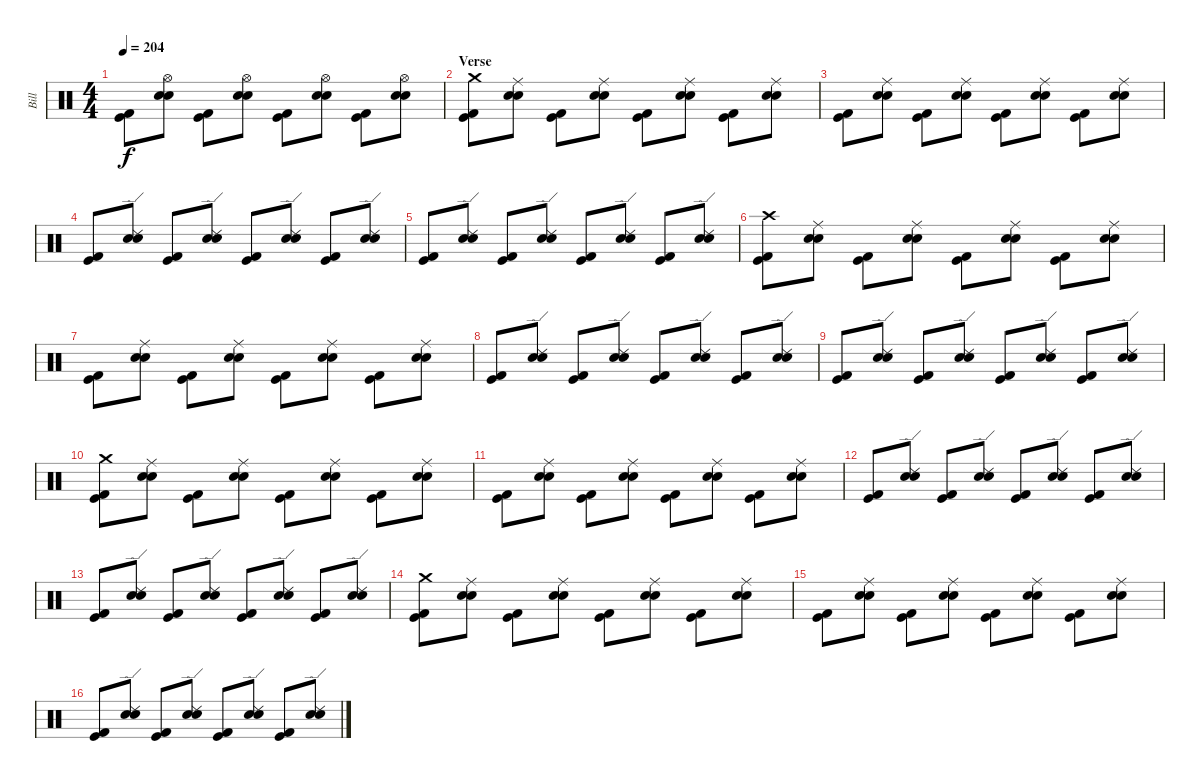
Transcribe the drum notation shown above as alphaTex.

\track ("Bill" "Bill") {instrument percussion}
\staff {score}
\articulation defaults
\ts (4 4)
\tempo 204
\clef neutral
\ks c
("Kick (hit)" "Kick (hit) 2").8{dy f} ("Hi-Hat (open)" "Snare (hit) 2" "Electric Snare (hit)").8 ("Kick (hit)" "Kick (hit) 2").8 ("Hi-Hat (open)" "Snare (hit) 2" "Electric Snare (hit)").8 ("Kick (hit)" "Kick (hit) 2").8 ("Hi-Hat (open)" "Snare (hit) 2" "Electric Snare (hit)").8 ("Kick (hit)" "Kick (hit) 2").8 ("Hi-Hat (open)" "Snare (hit) 2" "Electric Snare (hit)").8 |
\section ("" "Verse")
("Crash medium (hit)" "Kick (hit)" "Kick (hit) 2").8 ("Ride (middle)" "Snare (hit) 2" "Electric Snare (hit)").8 ("Kick (hit)" "Kick (hit) 2").8 ("Ride (middle)" "Snare (hit) 2" "Electric Snare (hit)").8 ("Kick (hit)" "Kick (hit) 2").8 ("Ride (middle)" "Snare (hit) 2" "Electric Snare (hit)").8 ("Kick (hit)" "Kick (hit) 2").8 ("Ride (middle)" "Snare (hit) 2" "Electric Snare (hit)").8 |
("Kick (hit)" "Kick (hit) 2").8 ("Ride (middle)" "Snare (hit) 2" "Electric Snare (hit)").8 ("Kick (hit)" "Kick (hit) 2").8 ("Ride (middle)" "Snare (hit) 2" "Electric Snare (hit)").8 ("Kick (hit)" "Kick (hit) 2").8 ("Ride (middle)" "Snare (hit) 2" "Electric Snare (hit)").8 ("Kick (hit)" "Kick (hit) 2").8 ("Ride (middle)" "Snare (hit) 2" "Electric Snare (hit)").8 |
("Kick (hit)" "Kick (hit) 2").8 ("Ride (edge) 2" "Snare (hit) 2" "Electric Snare (hit)").8 ("Kick (hit)" "Kick (hit) 2").8 ("Ride (edge) 2" "Snare (hit) 2" "Electric Snare (hit)").8 ("Kick (hit)" "Kick (hit) 2").8 ("Ride (edge) 2" "Snare (hit) 2" "Electric Snare (hit)").8 ("Kick (hit)" "Kick (hit) 2").8 ("Ride (edge) 2" "Snare (hit) 2" "Electric Snare (hit)").8 |
("Kick (hit)" "Kick (hit) 2").8 ("Ride (edge) 2" "Snare (hit) 2" "Electric Snare (hit)").8 ("Kick (hit)" "Kick (hit) 2").8 ("Ride (edge) 2" "Snare (hit) 2" "Electric Snare (hit)").8 ("Kick (hit)" "Kick (hit) 2").8 ("Ride (edge) 2" "Snare (hit) 2" "Electric Snare (hit)").8 ("Kick (hit)" "Kick (hit) 2").8 ("Ride (edge) 2" "Snare (hit) 2" "Electric Snare (hit)").8 |
("Crash high (hit)" "Kick (hit)" "Kick (hit) 2").8 ("Ride (middle)" "Snare (hit) 2" "Electric Snare (hit)").8 ("Kick (hit)" "Kick (hit) 2").8 ("Ride (middle)" "Snare (hit) 2" "Electric Snare (hit)").8 ("Kick (hit)" "Kick (hit) 2").8 ("Ride (middle)" "Snare (hit) 2" "Electric Snare (hit)").8 ("Kick (hit)" "Kick (hit) 2").8 ("Ride (middle)" "Snare (hit) 2" "Electric Snare (hit)").8 |
("Kick (hit)" "Kick (hit) 2").8 ("Ride (middle)" "Snare (hit) 2" "Electric Snare (hit)").8 ("Kick (hit)" "Kick (hit) 2").8 ("Ride (middle)" "Snare (hit) 2" "Electric Snare (hit)").8 ("Kick (hit)" "Kick (hit) 2").8 ("Ride (middle)" "Snare (hit) 2" "Electric Snare (hit)").8 ("Kick (hit)" "Kick (hit) 2").8 ("Ride (middle)" "Snare (hit) 2" "Electric Snare (hit)").8 |
("Kick (hit)" "Kick (hit) 2").8 ("Ride (edge) 2" "Snare (hit) 2" "Electric Snare (hit)").8 ("Kick (hit)" "Kick (hit) 2").8 ("Ride (edge) 2" "Snare (hit) 2" "Electric Snare (hit)").8 ("Kick (hit)" "Kick (hit) 2").8 ("Ride (edge) 2" "Snare (hit) 2" "Electric Snare (hit)").8 ("Kick (hit)" "Kick (hit) 2").8 ("Ride (edge) 2" "Snare (hit) 2" "Electric Snare (hit)").8 |
("Kick (hit)" "Kick (hit) 2").8 ("Ride (edge) 2" "Snare (hit) 2" "Electric Snare (hit)").8 ("Kick (hit)" "Kick (hit) 2").8 ("Ride (edge) 2" "Snare (hit) 2" "Electric Snare (hit)").8 ("Kick (hit)" "Kick (hit) 2").8 ("Ride (edge) 2" "Snare (hit) 2" "Electric Snare (hit)").8 ("Kick (hit)" "Kick (hit) 2").8 ("Ride (edge) 2" "Snare (hit) 2" "Electric Snare (hit)").8 |
("Crash medium (hit)" "Kick (hit)" "Kick (hit) 2").8 ("Ride (middle)" "Snare (hit) 2" "Electric Snare (hit)").8 ("Kick (hit)" "Kick (hit) 2").8 ("Ride (middle)" "Snare (hit) 2" "Electric Snare (hit)").8 ("Kick (hit)" "Kick (hit) 2").8 ("Ride (middle)" "Snare (hit) 2" "Electric Snare (hit)").8 ("Kick (hit)" "Kick (hit) 2").8 ("Ride (middle)" "Snare (hit) 2" "Electric Snare (hit)").8 |
("Kick (hit)" "Kick (hit) 2").8 ("Ride (middle)" "Snare (hit) 2" "Electric Snare (hit)").8 ("Kick (hit)" "Kick (hit) 2").8 ("Ride (middle)" "Snare (hit) 2" "Electric Snare (hit)").8 ("Kick (hit)" "Kick (hit) 2").8 ("Ride (middle)" "Snare (hit) 2" "Electric Snare (hit)").8 ("Kick (hit)" "Kick (hit) 2").8 ("Ride (middle)" "Snare (hit) 2" "Electric Snare (hit)").8 |
("Kick (hit)" "Kick (hit) 2").8 ("Ride (edge) 2" "Snare (hit) 2" "Electric Snare (hit)").8 ("Kick (hit)" "Kick (hit) 2").8 ("Ride (edge) 2" "Snare (hit) 2" "Electric Snare (hit)").8 ("Kick (hit)" "Kick (hit) 2").8 ("Ride (edge) 2" "Snare (hit) 2" "Electric Snare (hit)").8 ("Kick (hit)" "Kick (hit) 2").8 ("Ride (edge) 2" "Snare (hit) 2" "Electric Snare (hit)").8 |
("Kick (hit)" "Kick (hit) 2").8 ("Ride (edge) 2" "Snare (hit) 2" "Electric Snare (hit)").8 ("Kick (hit)" "Kick (hit) 2").8 ("Ride (edge) 2" "Snare (hit) 2" "Electric Snare (hit)").8 ("Kick (hit)" "Kick (hit) 2").8 ("Ride (edge) 2" "Snare (hit) 2" "Electric Snare (hit)").8 ("Kick (hit)" "Kick (hit) 2").8 ("Ride (edge) 2" "Snare (hit) 2" "Electric Snare (hit)").8 |
("Crash medium (hit)" "Kick (hit)" "Kick (hit) 2").8 ("Ride (middle)" "Snare (hit) 2" "Electric Snare (hit)").8 ("Kick (hit)" "Kick (hit) 2").8 ("Ride (middle)" "Snare (hit) 2" "Electric Snare (hit)").8 ("Kick (hit)" "Kick (hit) 2").8 ("Ride (middle)" "Snare (hit) 2" "Electric Snare (hit)").8 ("Kick (hit)" "Kick (hit) 2").8 ("Ride (middle)" "Snare (hit) 2" "Electric Snare (hit)").8 |
("Kick (hit)" "Kick (hit) 2").8 ("Ride (middle)" "Snare (hit) 2" "Electric Snare (hit)").8 ("Kick (hit)" "Kick (hit) 2").8 ("Ride (middle)" "Snare (hit) 2" "Electric Snare (hit)").8 ("Kick (hit)" "Kick (hit) 2").8 ("Ride (middle)" "Snare (hit) 2" "Electric Snare (hit)").8 ("Kick (hit)" "Kick (hit) 2").8 ("Ride (middle)" "Snare (hit) 2" "Electric Snare (hit)").8 |
("Kick (hit)" "Kick (hit) 2").8 ("Ride (edge) 2" "Snare (hit) 2" "Electric Snare (hit)").8 ("Kick (hit)" "Kick (hit) 2").8 ("Ride (edge) 2" "Snare (hit) 2" "Electric Snare (hit)").8 ("Kick (hit)" "Kick (hit) 2").8 ("Ride (edge) 2" "Snare (hit) 2" "Electric Snare (hit)").8 ("Kick (hit)" "Kick (hit) 2").8 ("Ride (edge) 2" "Snare (hit) 2" "Electric Snare (hit)").8
